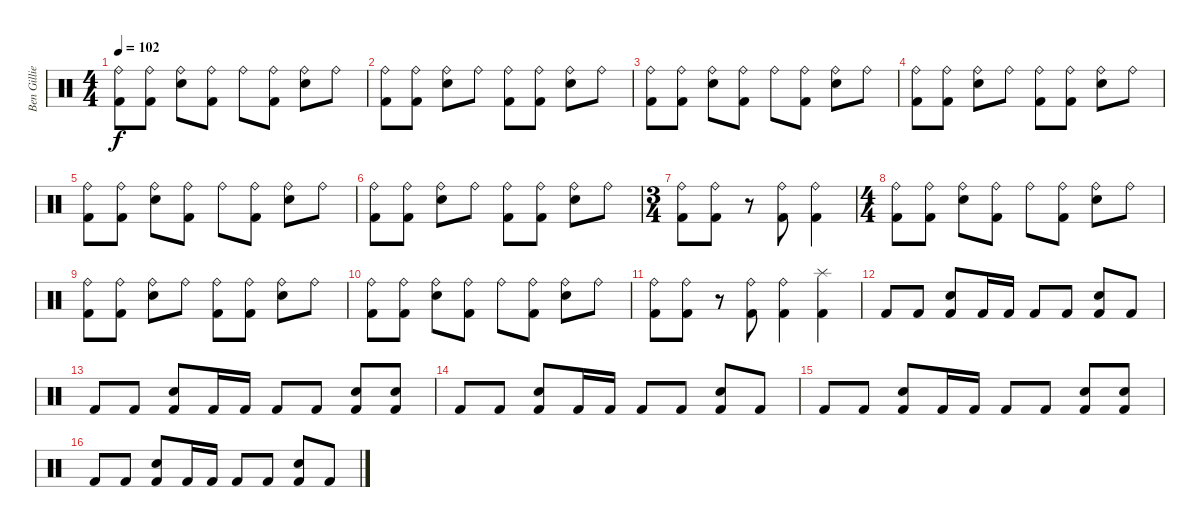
\track ("Ben Gillies" "Ben Gillie") {instrument percussion}
\staff {score}
\articulation defaults
\ts (4 4)
\tempo 102
\clef neutral
\ks c
("Ride (bell)" "Kick (hit) 2").8{dy f} ("Ride (bell)" "Kick (hit) 2").8 ("Ride (bell)" "Electric Snare (hit)").8 ("Ride (bell)" "Kick (hit) 2").8 "Ride (bell)".8 ("Ride (bell)" "Kick (hit) 2").8 ("Ride (bell)" "Electric Snare (hit)").8 "Ride (bell)".8 |
("Ride (bell)" "Kick (hit) 2").8 ("Ride (bell)" "Kick (hit) 2").8 ("Ride (bell)" "Electric Snare (hit)").8 "Ride (bell)".8 ("Ride (bell)" "Kick (hit) 2").8 ("Ride (bell)" "Kick (hit) 2").8 ("Ride (bell)" "Electric Snare (hit)").8 "Ride (bell)".8 |
("Ride (bell)" "Kick (hit) 2").8 ("Ride (bell)" "Kick (hit) 2").8 ("Ride (bell)" "Electric Snare (hit)").8 ("Ride (bell)" "Kick (hit) 2").8 "Ride (bell)".8 ("Ride (bell)" "Kick (hit) 2").8 ("Ride (bell)" "Electric Snare (hit)").8 "Ride (bell)".8 |
("Ride (bell)" "Kick (hit) 2").8 ("Ride (bell)" "Kick (hit) 2").8 ("Ride (bell)" "Electric Snare (hit)").8 "Ride (bell)".8 ("Ride (bell)" "Kick (hit) 2").8 ("Ride (bell)" "Kick (hit) 2").8 ("Ride (bell)" "Electric Snare (hit)").8 "Ride (bell)".8 |
("Ride (bell)" "Kick (hit) 2").8 ("Ride (bell)" "Kick (hit) 2").8 ("Ride (bell)" "Electric Snare (hit)").8 ("Ride (bell)" "Kick (hit) 2").8 "Ride (bell)".8 ("Ride (bell)" "Kick (hit) 2").8 ("Ride (bell)" "Electric Snare (hit)").8 "Ride (bell)".8 |
("Ride (bell)" "Kick (hit) 2").8 ("Ride (bell)" "Kick (hit) 2").8 ("Ride (bell)" "Electric Snare (hit)").8 "Ride (bell)".8 ("Ride (bell)" "Kick (hit) 2").8 ("Ride (bell)" "Kick (hit) 2").8 ("Ride (bell)" "Electric Snare (hit)").8 "Ride (bell)".8 |
\ts (3 4)
("Ride (bell)" "Kick (hit) 2").8 ("Ride (bell)" "Kick (hit) 2").8 r.8 ("Ride (bell)" "Kick (hit) 2").8 ("Ride (bell)" "Kick (hit) 2").4 |
\ts (4 4)
("Ride (bell)" "Kick (hit) 2").8 ("Ride (bell)" "Kick (hit) 2").8 ("Ride (bell)" "Electric Snare (hit)").8 ("Ride (bell)" "Kick (hit) 2").8 "Ride (bell)".8 ("Ride (bell)" "Kick (hit) 2").8 ("Ride (bell)" "Electric Snare (hit)").8 "Ride (bell)".8 |
("Ride (bell)" "Kick (hit) 2").8 ("Ride (bell)" "Kick (hit) 2").8 ("Ride (bell)" "Electric Snare (hit)").8 "Ride (bell)".8 ("Ride (bell)" "Kick (hit) 2").8 ("Ride (bell)" "Kick (hit) 2").8 ("Ride (bell)" "Electric Snare (hit)").8 "Ride (bell)".8 |
("Ride (bell)" "Kick (hit) 2").8 ("Ride (bell)" "Kick (hit) 2").8 ("Ride (bell)" "Electric Snare (hit)").8 ("Ride (bell)" "Kick (hit) 2").8 "Ride (bell)".8 ("Ride (bell)" "Kick (hit) 2").8 ("Ride (bell)" "Electric Snare (hit)").8 "Ride (bell)".8 |
("Ride (bell)" "Kick (hit) 2").8 ("Ride (bell)" "Kick (hit) 2").8 r.8 ("Ride (bell)" "Kick (hit) 2").8 ("Ride (bell)" "Kick (hit) 2").4 ("Splash (hit)" "Kick (hit) 2").4 |
"Kick (hit) 2".8 "Kick (hit) 2".8 ("Electric Snare (hit)" "Kick (hit) 2").8 "Kick (hit) 2".16 "Kick (hit) 2".16 "Kick (hit) 2".8 "Kick (hit) 2".8 ("Electric Snare (hit)" "Kick (hit) 2").8 "Kick (hit) 2".8 |
"Kick (hit) 2".8 "Kick (hit) 2".8 ("Electric Snare (hit)" "Kick (hit) 2").8 "Kick (hit) 2".16 "Kick (hit) 2".16 "Kick (hit) 2".8 "Kick (hit) 2".8 ("Electric Snare (hit)" "Kick (hit) 2").8 ("Electric Snare (hit)" "Kick (hit) 2").8 |
"Kick (hit) 2".8 "Kick (hit) 2".8 ("Electric Snare (hit)" "Kick (hit) 2").8 "Kick (hit) 2".16 "Kick (hit) 2".16 "Kick (hit) 2".8 "Kick (hit) 2".8 ("Electric Snare (hit)" "Kick (hit) 2").8 "Kick (hit) 2".8 |
"Kick (hit) 2".8 "Kick (hit) 2".8 ("Electric Snare (hit)" "Kick (hit) 2").8 "Kick (hit) 2".16 "Kick (hit) 2".16 "Kick (hit) 2".8 "Kick (hit) 2".8 ("Electric Snare (hit)" "Kick (hit) 2").8 ("Electric Snare (hit)" "Kick (hit) 2").8 |
"Kick (hit) 2".8 "Kick (hit) 2".8 ("Electric Snare (hit)" "Kick (hit) 2").8 "Kick (hit) 2".16 "Kick (hit) 2".16 "Kick (hit) 2".8 "Kick (hit) 2".8 ("Electric Snare (hit)" "Kick (hit) 2").8 "Kick (hit) 2".8
